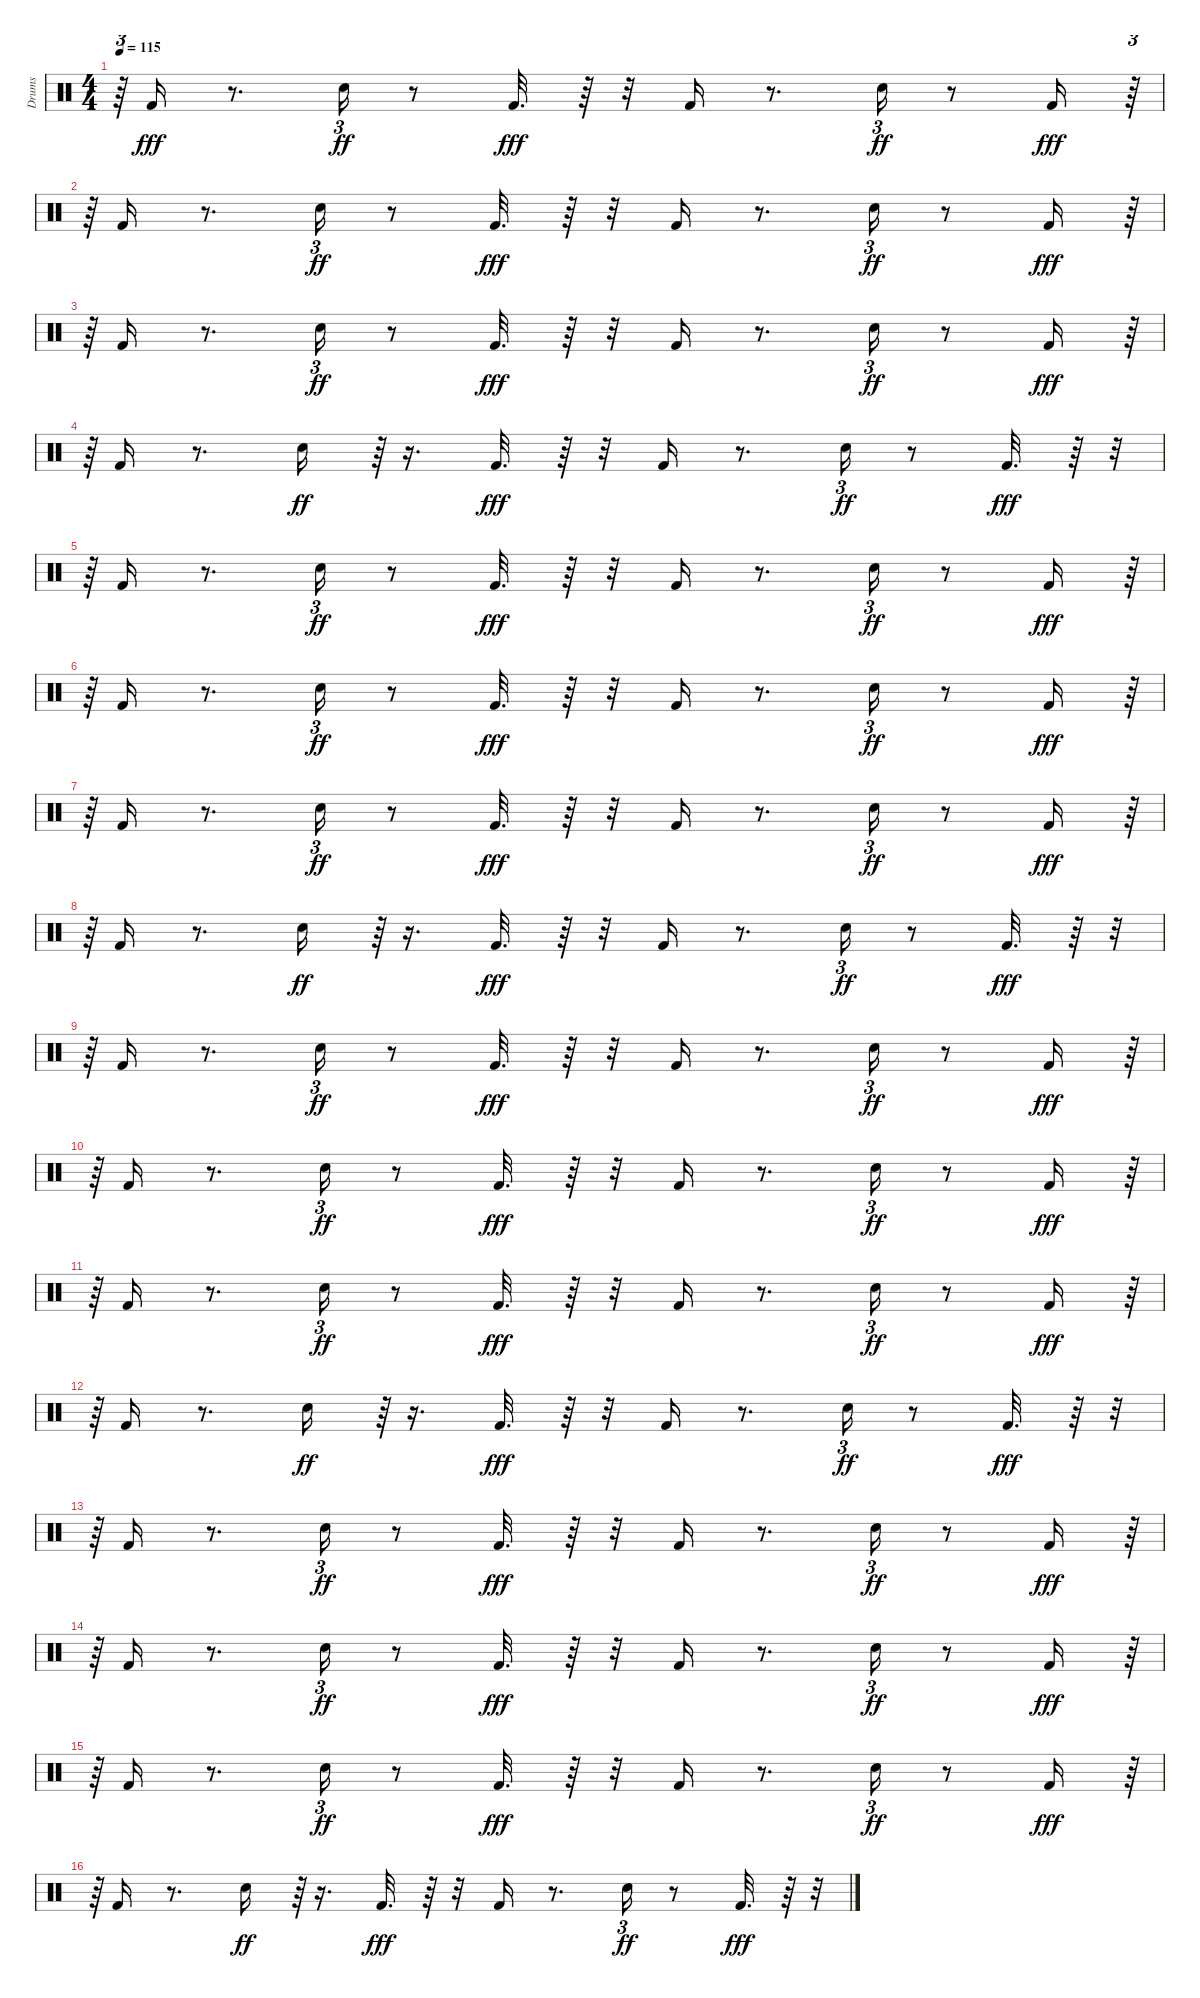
\track ("Drums" "Drums") {instrument percussion}
\staff {score}
\articulation defaults
\ts (4 4)
\tempo 115
\clef neutral
\ks c
r.64{tu (3 2) dy fff} "Kick (hit) 2".16 r.8{d} "Electric Snare (hit)".16{tu (3 2) dy ff} r.8 "Kick (hit) 2".32{d dy fff} r.64 r.32 "Kick (hit) 2".16 r.8{d} "Electric Snare (hit)".16{tu (3 2) dy ff} r.8 "Kick (hit) 2".16{dy fff} r.64{tu (3 2)} |
r.64{tu (3 2)} "Kick (hit) 2".16 r.8{d} "Electric Snare (hit)".16{tu (3 2) dy ff} r.8 "Kick (hit) 2".32{d dy fff} r.64 r.32 "Kick (hit) 2".16 r.8{d} "Electric Snare (hit)".16{tu (3 2) dy ff} r.8 "Kick (hit) 2".16{dy fff} r.64{tu (3 2)} |
r.64{tu (3 2)} "Kick (hit) 2".16 r.8{d} "Electric Snare (hit)".16{tu (3 2) dy ff} r.8 "Kick (hit) 2".32{d dy fff} r.64 r.32 "Kick (hit) 2".16 r.8{d} "Electric Snare (hit)".16{tu (3 2) dy ff} r.8 "Kick (hit) 2".16{dy fff} r.64{tu (3 2)} |
r.64{tu (3 2)} "Kick (hit) 2".16 r.8{d} "Electric Snare (hit)".16{dy ff} r.64{tu (3 2)} r.16{d} "Kick (hit) 2".32{d dy fff} r.64 r.32 "Kick (hit) 2".16 r.8{d} "Electric Snare (hit)".16{tu (3 2) dy ff} r.8 "Kick (hit) 2".32{d dy fff} r.64 r.32{tu (3 2)} |
r.64{tu (3 2)} "Kick (hit) 2".16 r.8{d} "Electric Snare (hit)".16{tu (3 2) dy ff} r.8 "Kick (hit) 2".32{d dy fff} r.64 r.32 "Kick (hit) 2".16 r.8{d} "Electric Snare (hit)".16{tu (3 2) dy ff} r.8 "Kick (hit) 2".16{dy fff} r.64{tu (3 2)} |
r.64{tu (3 2)} "Kick (hit) 2".16 r.8{d} "Electric Snare (hit)".16{tu (3 2) dy ff} r.8 "Kick (hit) 2".32{d dy fff} r.64 r.32 "Kick (hit) 2".16 r.8{d} "Electric Snare (hit)".16{tu (3 2) dy ff} r.8 "Kick (hit) 2".16{dy fff} r.64{tu (3 2)} |
r.64{tu (3 2)} "Kick (hit) 2".16 r.8{d} "Electric Snare (hit)".16{tu (3 2) dy ff} r.8 "Kick (hit) 2".32{d dy fff} r.64 r.32 "Kick (hit) 2".16 r.8{d} "Electric Snare (hit)".16{tu (3 2) dy ff} r.8 "Kick (hit) 2".16{dy fff} r.64{tu (3 2)} |
r.64{tu (3 2)} "Kick (hit) 2".16 r.8{d} "Electric Snare (hit)".16{dy ff} r.64{tu (3 2)} r.16{d} "Kick (hit) 2".32{d dy fff} r.64 r.32 "Kick (hit) 2".16 r.8{d} "Electric Snare (hit)".16{tu (3 2) dy ff} r.8 "Kick (hit) 2".32{d dy fff} r.64 r.32{tu (3 2)} |
r.64{tu (3 2)} "Kick (hit) 2".16 r.8{d} "Electric Snare (hit)".16{tu (3 2) dy ff} r.8 "Kick (hit) 2".32{d dy fff} r.64 r.32 "Kick (hit) 2".16 r.8{d} "Electric Snare (hit)".16{tu (3 2) dy ff} r.8 "Kick (hit) 2".16{dy fff} r.64{tu (3 2)} |
r.64{tu (3 2)} "Kick (hit) 2".16 r.8{d} "Electric Snare (hit)".16{tu (3 2) dy ff} r.8 "Kick (hit) 2".32{d dy fff} r.64 r.32 "Kick (hit) 2".16 r.8{d} "Electric Snare (hit)".16{tu (3 2) dy ff} r.8 "Kick (hit) 2".16{dy fff} r.64{tu (3 2)} |
r.64{tu (3 2)} "Kick (hit) 2".16 r.8{d} "Electric Snare (hit)".16{tu (3 2) dy ff} r.8 "Kick (hit) 2".32{d dy fff} r.64 r.32 "Kick (hit) 2".16 r.8{d} "Electric Snare (hit)".16{tu (3 2) dy ff} r.8 "Kick (hit) 2".16{dy fff} r.64{tu (3 2)} |
r.64{tu (3 2)} "Kick (hit) 2".16 r.8{d} "Electric Snare (hit)".16{dy ff} r.64{tu (3 2)} r.16{d} "Kick (hit) 2".32{d dy fff} r.64 r.32 "Kick (hit) 2".16 r.8{d} "Electric Snare (hit)".16{tu (3 2) dy ff} r.8 "Kick (hit) 2".32{d dy fff} r.64 r.32{tu (3 2)} |
r.64{tu (3 2)} "Kick (hit) 2".16 r.8{d} "Electric Snare (hit)".16{tu (3 2) dy ff} r.8 "Kick (hit) 2".32{d dy fff} r.64 r.32 "Kick (hit) 2".16 r.8{d} "Electric Snare (hit)".16{tu (3 2) dy ff} r.8 "Kick (hit) 2".16{dy fff} r.64{tu (3 2)} |
r.64{tu (3 2)} "Kick (hit) 2".16 r.8{d} "Electric Snare (hit)".16{tu (3 2) dy ff} r.8 "Kick (hit) 2".32{d dy fff} r.64 r.32 "Kick (hit) 2".16 r.8{d} "Electric Snare (hit)".16{tu (3 2) dy ff} r.8 "Kick (hit) 2".16{dy fff} r.64{tu (3 2)} |
r.64{tu (3 2)} "Kick (hit) 2".16 r.8{d} "Electric Snare (hit)".16{tu (3 2) dy ff} r.8 "Kick (hit) 2".32{d dy fff} r.64 r.32 "Kick (hit) 2".16 r.8{d} "Electric Snare (hit)".16{tu (3 2) dy ff} r.8 "Kick (hit) 2".16{dy fff} r.64{tu (3 2)} |
r.64{tu (3 2)} "Kick (hit) 2".16 r.8{d} "Electric Snare (hit)".16{dy ff} r.64{tu (3 2)} r.16{d} "Kick (hit) 2".32{d dy fff} r.64 r.32 "Kick (hit) 2".16 r.8{d} "Electric Snare (hit)".16{tu (3 2) dy ff} r.8 "Kick (hit) 2".32{d dy fff} r.64 r.32{tu (3 2)}
